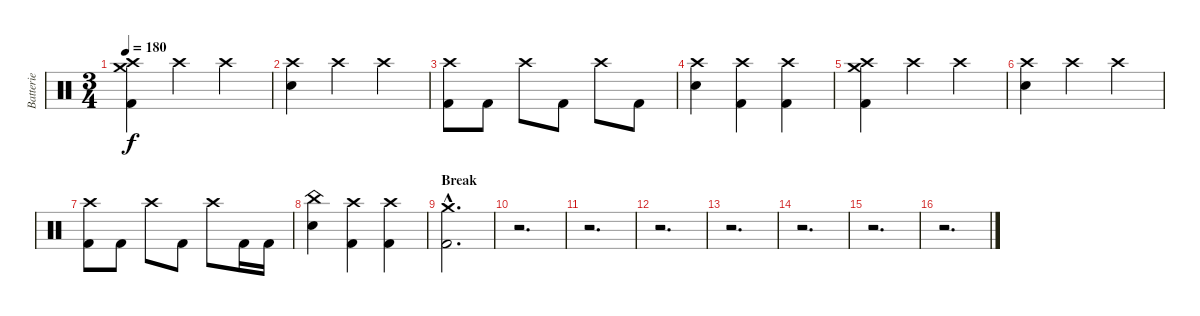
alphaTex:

\track ("Batterie" "Batterie") {instrument percussion}
\staff {score}
\articulation defaults
\ts (3 4)
\tempo 180
\clef neutral
\ks c
("Crash medium (hit)" "Crash high (hit)" "Kick (hit) 2").4{dy f} "Crash high (hit)".4 "Crash high (hit)".4 |
("Crash high (hit)" "Electric Snare (hit)").4 "Crash high (hit)".4 "Crash high (hit)".4 |
("Crash high (hit)" "Kick (hit) 2").8 "Kick (hit) 2".8 "Crash high (hit)".8 "Kick (hit) 2".8 "Crash high (hit)".8 "Kick (hit) 2".8 |
("Crash high (hit)" "Electric Snare (hit)").4 ("Crash high (hit)" "Kick (hit) 2").4 ("Crash high (hit)" "Kick (hit) 2").4 |
("Crash medium (hit)" "Crash high (hit)" "Kick (hit) 2").4 "Crash high (hit)".4 "Crash high (hit)".4 |
("Crash high (hit)" "Electric Snare (hit)").4 "Crash high (hit)".4 "Crash high (hit)".4 |
("Crash high (hit)" "Kick (hit) 2").8 "Kick (hit) 2".8 "Crash high (hit)".8 "Kick (hit) 2".8 "Crash high (hit)".8 "Kick (hit) 2".16 "Kick (hit) 2".16 |
("China (hit)" "Electric Snare (hit)").4 ("Crash high (hit)" "Kick (hit) 2").4 ("Crash high (hit)" "Kick (hit) 2").4 |
\section ("" "Break")
("Crash medium (hit)"{hac} "Kick (hit) 2"{hac}).2{d} |
r.2{d} |
r.2{d} |
r.2{d} |
r.2{d} |
r.2{d} |
r.2{d} |
r.2{d}
